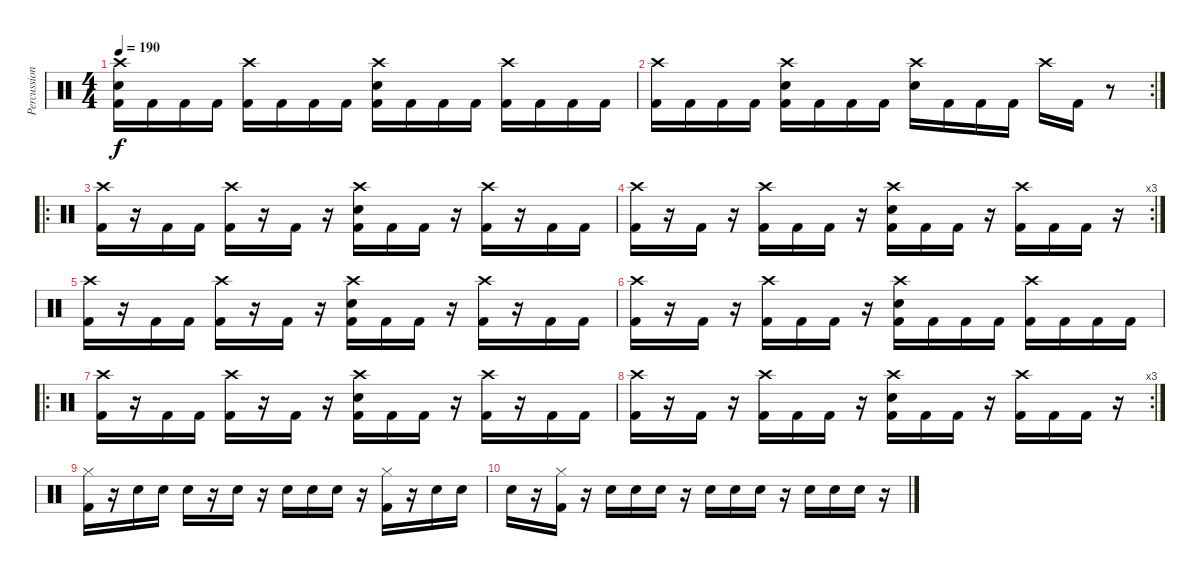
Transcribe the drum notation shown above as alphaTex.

\track ("Percussion" "Percussion") {instrument percussion}
\staff {score}
\articulation defaults
\ts (4 4)
\tempo 190
\clef neutral
\ks c
("Crash high (hit)" "Electric Snare (hit)" "Kick (hit) 2").16{dy f} "Kick (hit) 2".16 "Kick (hit) 2".16 "Kick (hit) 2".16 ("Crash high (hit)" "Kick (hit) 2").16 "Kick (hit) 2".16 "Kick (hit) 2".16 "Kick (hit) 2".16 ("Crash high (hit)" "Electric Snare (hit)" "Kick (hit) 2").16 "Kick (hit) 2".16 "Kick (hit) 2".16 "Kick (hit) 2".16 ("Crash high (hit)" "Kick (hit) 2").16 "Kick (hit) 2".16 "Kick (hit) 2".16 "Kick (hit) 2".16 |
\rc 2
("Crash high (hit)" "Kick (hit) 2").16 "Kick (hit) 2".16 "Kick (hit) 2".16 "Kick (hit) 2".16 ("Crash high (hit)" "Electric Snare (hit)" "Kick (hit) 2").16 "Kick (hit) 2".16 "Kick (hit) 2".16 "Kick (hit) 2".16 ("Crash high (hit)" "Electric Snare (hit)").16 "Kick (hit) 2".16 "Kick (hit) 2".16 "Kick (hit) 2".16 "Crash high (hit)".16 "Kick (hit) 2".16 r.8 |
\ro
("Crash high (hit)" "Kick (hit) 2").16 r.16 "Kick (hit) 2".16 "Kick (hit) 2".16 ("Crash high (hit)" "Kick (hit) 2").16 r.16 "Kick (hit) 2".16 r.16 ("Crash high (hit)" "Electric Snare (hit)" "Kick (hit) 2").16 "Kick (hit) 2".16 "Kick (hit) 2".16 r.16 ("Crash high (hit)" "Kick (hit) 2").16 r.16 "Kick (hit) 2".16 "Kick (hit) 2".16 |
\rc 3
("Crash high (hit)" "Kick (hit) 2").16 r.16 "Kick (hit) 2".16 r.16 ("Crash high (hit)" "Kick (hit) 2").16 "Kick (hit) 2".16 "Kick (hit) 2".16 r.16 ("Crash high (hit)" "Electric Snare (hit)" "Kick (hit) 2").16 "Kick (hit) 2".16 "Kick (hit) 2".16 r.16 ("Crash high (hit)" "Kick (hit) 2").16 "Kick (hit) 2".16 "Kick (hit) 2".16 r.16 |
("Crash high (hit)" "Kick (hit) 2").16 r.16 "Kick (hit) 2".16 "Kick (hit) 2".16 ("Crash high (hit)" "Kick (hit) 2").16 r.16 "Kick (hit) 2".16 r.16 ("Crash high (hit)" "Electric Snare (hit)" "Kick (hit) 2").16 "Kick (hit) 2".16 "Kick (hit) 2".16 r.16 ("Crash high (hit)" "Kick (hit) 2").16 r.16 "Kick (hit) 2".16 "Kick (hit) 2".16 |
("Crash high (hit)" "Kick (hit) 2").16 r.16 "Kick (hit) 2".16 r.16 ("Crash high (hit)" "Kick (hit) 2").16 "Kick (hit) 2".16 "Kick (hit) 2".16 r.16 ("Crash high (hit)" "Electric Snare (hit)" "Kick (hit) 2").16 "Kick (hit) 2".16 "Kick (hit) 2".16 "Kick (hit) 2".16 ("Crash high (hit)" "Kick (hit) 2").16 "Kick (hit) 2".16 "Kick (hit) 2".16 "Kick (hit) 2".16 |
\ro
("Crash high (hit)" "Kick (hit) 2").16 r.16 "Kick (hit) 2".16 "Kick (hit) 2".16 ("Crash high (hit)" "Kick (hit) 2").16 r.16 "Kick (hit) 2".16 r.16 ("Crash high (hit)" "Electric Snare (hit)" "Kick (hit) 2").16 "Kick (hit) 2".16 "Kick (hit) 2".16 r.16 ("Crash high (hit)" "Kick (hit) 2").16 r.16 "Kick (hit) 2".16 "Kick (hit) 2".16 |
\rc 3
("Crash high (hit)" "Kick (hit) 2").16 r.16 "Kick (hit) 2".16 r.16 ("Crash high (hit)" "Kick (hit) 2").16 "Kick (hit) 2".16 "Kick (hit) 2".16 r.16 ("Crash high (hit)" "Electric Snare (hit)" "Kick (hit) 2").16 "Kick (hit) 2".16 "Kick (hit) 2".16 r.16 ("Crash high (hit)" "Kick (hit) 2").16 "Kick (hit) 2".16 "Kick (hit) 2".16 r.16 |
("Hi-Hat (closed)" "Kick (hit) 2").16 r.16 "Electric Snare (hit)".16 "Electric Snare (hit)".16 "Electric Snare (hit)".16 r.16 "Electric Snare (hit)".16 r.16 "Electric Snare (hit)".16 "Electric Snare (hit)".16 "Electric Snare (hit)".16 r.16 ("Hi-Hat (closed)" "Kick (hit) 2").16 r.16 "Electric Snare (hit)".16 "Electric Snare (hit)".16 |
"Electric Snare (hit)".16 r.16 ("Hi-Hat (closed)" "Kick (hit) 2").16 r.16 "Electric Snare (hit)".16 "Electric Snare (hit)".16 "Electric Snare (hit)".16 r.16 "Electric Snare (hit)".16 "Electric Snare (hit)".16 "Electric Snare (hit)".16 r.16 "Electric Snare (hit)".16 "Electric Snare (hit)".16 "Electric Snare (hit)".16 r.16
